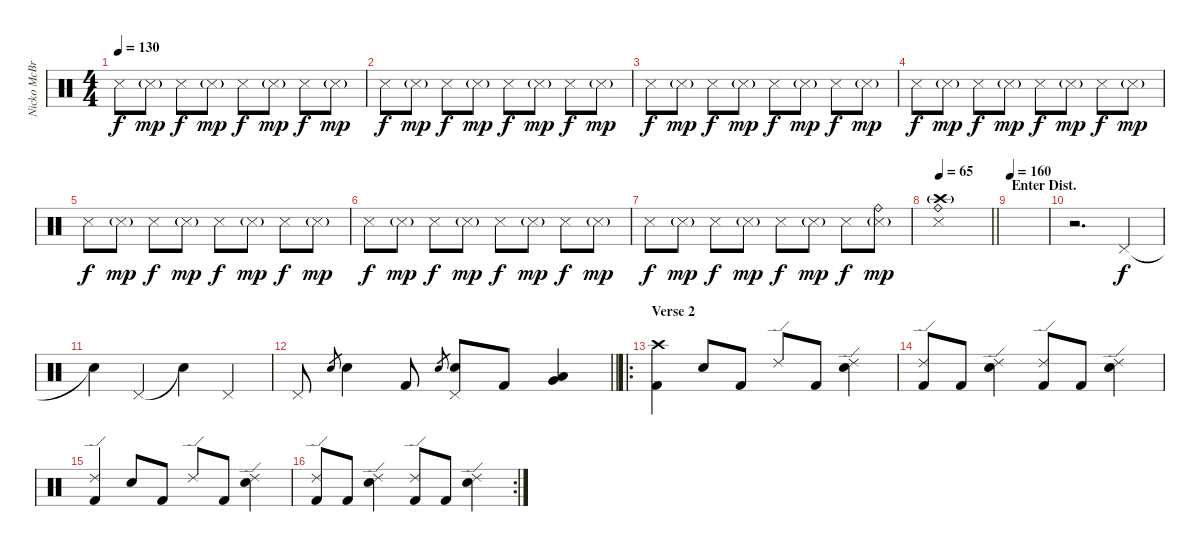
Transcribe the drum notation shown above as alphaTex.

\track ("Nicko McBrain" "Nicko McBr") {instrument percussion}
\staff {score}
\articulation defaults
\ts (4 4)
\tempo 130
\clef neutral
\ks c "Snare (side stick) 3".8{dy f} "Snare (side stick) 3"{g}.8{dy mp} "Snare (side stick) 3".8{dy f} "Snare (side stick) 3"{g}.8{dy mp} "Snare (side stick) 3".8{dy f} "Snare (side stick) 3"{g}.8{dy mp} "Snare (side stick) 3".8{dy f} "Snare (side stick) 3"{g}.8{dy mp}
|
"Snare (side stick) 3".8{dy f} "Snare (side stick) 3"{g}.8{dy mp} "Snare (side stick) 3".8{dy f} "Snare (side stick) 3"{g}.8{dy mp} "Snare (side stick) 3".8{dy f} "Snare (side stick) 3"{g}.8{dy mp} "Snare (side stick) 3".8{dy f} "Snare (side stick) 3"{g}.8{dy mp} |
"Snare (side stick) 3".8{dy f} "Snare (side stick) 3"{g}.8{dy mp} "Snare (side stick) 3".8{dy f} "Snare (side stick) 3"{g}.8{dy mp} "Snare (side stick) 3".8{dy f} "Snare (side stick) 3"{g}.8{dy mp} "Snare (side stick) 3".8{dy f} "Snare (side stick) 3"{g}.8{dy mp} |
"Snare (side stick) 3".8{dy f} "Snare (side stick) 3"{g}.8{dy mp} "Snare (side stick) 3".8{dy f} "Snare (side stick) 3"{g}.8{dy mp} "Snare (side stick) 3".8{dy f} "Snare (side stick) 3"{g}.8{dy mp} "Snare (side stick) 3".8{dy f} "Snare (side stick) 3"{g}.8{dy mp} |
"Snare (side stick) 3".8{dy f} "Snare (side stick) 3"{g}.8{dy mp} "Snare (side stick) 3".8{dy f} "Snare (side stick) 3"{g}.8{dy mp} "Snare (side stick) 3".8{dy f} "Snare (side stick) 3"{g}.8{dy mp} "Snare (side stick) 3".8{dy f} "Snare (side stick) 3"{g}.8{dy mp} |
"Snare (side stick) 3".8{dy f} "Snare (side stick) 3"{g}.8{dy mp} "Snare (side stick) 3".8{dy f} "Snare (side stick) 3"{g}.8{dy mp} "Snare (side stick) 3".8{dy f} "Snare (side stick) 3"{g}.8{dy mp} "Snare (side stick) 3".8{dy f} "Snare (side stick) 3"{g}.8{dy mp} |
"Snare (side stick) 3".8{dy f} "Snare (side stick) 3"{g}.8{dy mp} "Snare (side stick) 3".8{dy f} "Snare (side stick) 3"{g}.8{dy mp} "Snare (side stick) 3".8{dy f} "Snare (side stick) 3"{g}.8{dy mp} "Snare (side stick) 3".8{dy f} ("Ride (bell)" "Snare (side stick) 3"{g}).8{dy mp} |
\tempo 65
\barLineRight lightlight
("Ride (bell)" "Crash high (hit)"{g} "Snare (side stick) 3").1 |
\section ("" "Enter Dist.")
\tempo 160
|
r.2{d} "Pedal Hi-Hat (hit)".4{dy f} |
"Snare (hit)"{t}.4 "Pedal Hi-Hat (hit)".4 "Snare (hit)"{t}.4 "Pedal Hi-Hat (hit)".4 |
\barLineRight lightlight "Pedal Hi-Hat (hit)".8 "Electric Snare (hit)".8{gr} "Electric Snare (hit)".4 "Kick (hit) 2".8 "Electric Snare (hit)".8{gr}
("Pedal Hi-Hat (hit)" "Electric Snare (hit)").8 "Kick (hit) 2".8 ("Low Tom (hit)" "Very Low Tom (hit)").4 |
\ro
\section ("" "Verse 2")
("Crash high (hit)" "Kick (hit) 2").4 "Electric Snare (hit)".8 "Kick (hit) 2".8 "Ride (edge) 2".8 "Kick (hit) 2".8 ("Ride (edge) 2" "Electric Snare (hit)").4 |
("Ride (edge) 2" "Kick (hit) 2").8 "Kick (hit) 2".8 ("Ride (edge) 2" "Electric Snare (hit)").4 ("Ride (edge) 2" "Kick (hit) 2").8 "Kick (hit) 2".8 ("Ride (edge) 2" "Electric Snare (hit)").4 |
("Ride (edge) 2" "Kick (hit) 2").4 "Electric Snare (hit)".8 "Kick (hit) 2".8 "Ride (edge) 2".8 "Kick (hit) 2".8 ("Ride (edge) 2" "Electric Snare (hit)").4 |
\rc 2
("Ride (edge) 2" "Kick (hit) 2").8 "Kick (hit) 2".8 ("Ride (edge) 2" "Electric Snare (hit)").4 ("Ride (edge) 2" "Kick (hit) 2").8 "Kick (hit) 2".8 ("Ride (edge) 2" "Electric Snare (hit)").4
